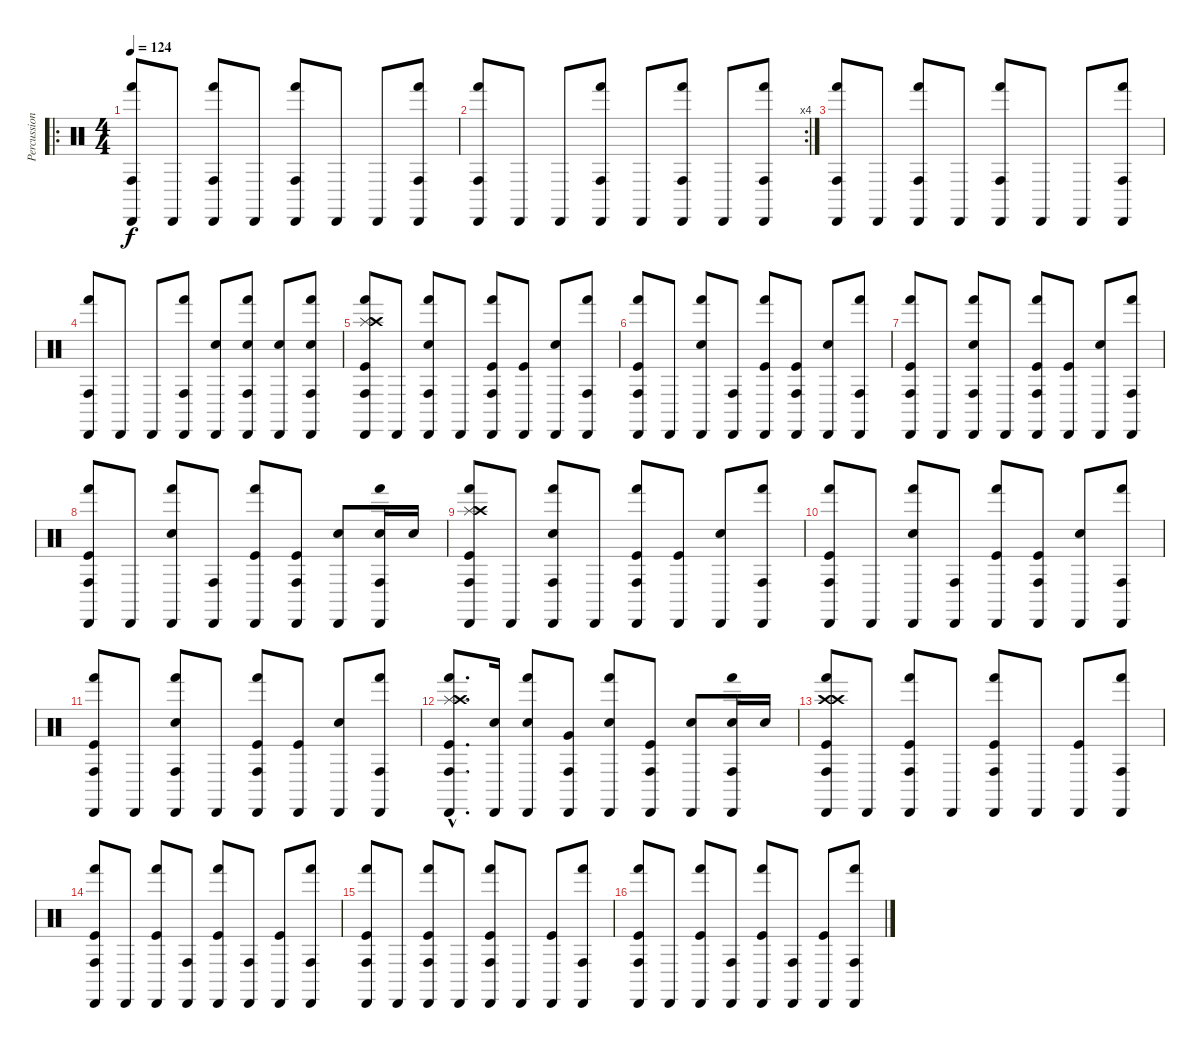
\track ("Percussion" "Percussion") {instrument percussion}
\staff {score}
\articulation defaults
\ro
\ts (4 4)
\tempo 124
\clef neutral
\ks c
("Cabasa (hit)" "Hand (hit)" "Conga high (hit)").8{dy f} "Cabasa (hit)".8 ("Cabasa (hit)" "Hand (hit)" "Conga high (hit)").8 "Cabasa (hit)".8 ("Cabasa (hit)" "Hand (hit)" "Conga high (hit)").8 "Cabasa (hit)".8 "Cabasa (hit)".8 ("Cabasa (hit)" "Hand (hit)" "Conga high (hit)").8 |
\rc 4
("Cabasa (hit)" "Hand (hit)" "Conga high (hit)").8 "Cabasa (hit)".8 "Cabasa (hit)".8 ("Cabasa (hit)" "Hand (hit)" "Conga high (hit)").8 "Cabasa (hit)".8 ("Cabasa (hit)" "Hand (hit)" "Conga high (hit)").8 "Cabasa (hit)".8 ("Cabasa (hit)" "Hand (hit)" "Conga high (hit)").8 |
("Cabasa (hit)" "Hand (hit)" "Conga high (hit)").8 "Cabasa (hit)".8 ("Cabasa (hit)" "Hand (hit)" "Conga high (hit)").8 "Cabasa (hit)".8 ("Cabasa (hit)" "Hand (hit)" "Conga high (hit)").8 "Cabasa (hit)".8 "Cabasa (hit)".8 ("Cabasa (hit)" "Hand (hit)" "Conga high (hit)").8 |
("Cabasa (hit)" "Hand (hit)" "Conga high (hit)").8 "Cabasa (hit)".8 "Cabasa (hit)".8 ("Cabasa (hit)" "Hand (hit)" "Conga high (hit)").8 ("Cabasa (hit)" "Electric Snare (hit)").8 ("Cabasa (hit)" "Electric Snare (hit)" "Hand (hit)" "Conga high (hit)").8 ("Cabasa (hit)" "Electric Snare (hit)").8 ("Cabasa (hit)" "Electric Snare (hit)" "Hand (hit)" "Conga high (hit)").8 |
("Cabasa (hit)" "Kick (hit)" "Hand (hit)" "Conga high (hit)" "Splash (hit)" "Crash high (hit)").8 "Cabasa (hit)".8 ("Cabasa (hit)" "Electric Snare (hit)" "Hand (hit)" "Conga high (hit)").8 "Cabasa (hit)".8 ("Cabasa (hit)" "Kick (hit)" "Hand (hit)" "Conga high (hit)").8 ("Cabasa (hit)" "Kick (hit)").8 ("Cabasa (hit)" "Electric Snare (hit)").8 ("Cabasa (hit)" "Hand (hit)" "Conga high (hit)").8 |
("Cabasa (hit)" "Kick (hit)" "Hand (hit)" "Conga high (hit)").8 "Cabasa (hit)".8 ("Cabasa (hit)" "Electric Snare (hit)" "Hand (hit)").8 ("Cabasa (hit)" "Conga high (hit)").8 ("Cabasa (hit)" "Kick (hit)" "Hand (hit)").8 ("Cabasa (hit)" "Kick (hit)" "Conga high (hit)").8 ("Cabasa (hit)" "Electric Snare (hit)").8 ("Cabasa (hit)" "Hand (hit)" "Conga high (hit)").8 |
("Cabasa (hit)" "Kick (hit)" "Hand (hit)" "Conga high (hit)").8 "Cabasa (hit)".8 ("Cabasa (hit)" "Electric Snare (hit)" "Hand (hit)" "Conga high (hit)").8 "Cabasa (hit)".8 ("Cabasa (hit)" "Kick (hit)" "Hand (hit)" "Conga high (hit)").8 ("Cabasa (hit)" "Kick (hit)").8 ("Cabasa (hit)" "Electric Snare (hit)").8 ("Cabasa (hit)" "Hand (hit)" "Conga high (hit)").8 |
("Cabasa (hit)" "Kick (hit)" "Hand (hit)" "Conga high (hit)").8 "Cabasa (hit)".8 ("Cabasa (hit)" "Electric Snare (hit)" "Hand (hit)").8 ("Cabasa (hit)" "Conga high (hit)").8 ("Cabasa (hit)" "Kick (hit)" "Hand (hit)").8 ("Cabasa (hit)" "Kick (hit)" "Conga high (hit)").8 ("Cabasa (hit)" "Electric Snare (hit)").8 ("Cabasa (hit)" "Snare (hit) 2" "Hand (hit)" "Conga high (hit)").16 "Snare (hit) 2".16 |
("Cabasa (hit)" "Kick (hit)" "Hand (hit)" "Conga high (hit)" "Splash (hit)" "Crash high (hit)").8 "Cabasa (hit)".8 ("Cabasa (hit)" "Electric Snare (hit)" "Hand (hit)" "Conga high (hit)").8 "Cabasa (hit)".8 ("Cabasa (hit)" "Kick (hit)" "Hand (hit)" "Conga high (hit)").8 ("Cabasa (hit)" "Kick (hit)").8 ("Cabasa (hit)" "Electric Snare (hit)").8 ("Cabasa (hit)" "Hand (hit)" "Conga high (hit)").8 |
("Cabasa (hit)" "Kick (hit)" "Hand (hit)" "Conga high (hit)").8 "Cabasa (hit)".8 ("Cabasa (hit)" "Electric Snare (hit)" "Hand (hit)").8 ("Cabasa (hit)" "Conga high (hit)").8 ("Cabasa (hit)" "Kick (hit)" "Hand (hit)").8 ("Cabasa (hit)" "Kick (hit)" "Conga high (hit)").8 ("Cabasa (hit)" "Electric Snare (hit)").8 ("Cabasa (hit)" "Hand (hit)" "Conga high (hit)").8 |
("Cabasa (hit)" "Kick (hit)" "Hand (hit)" "Conga high (hit)").8 "Cabasa (hit)".8 ("Cabasa (hit)" "Electric Snare (hit)" "Hand (hit)" "Conga high (hit)").8 "Cabasa (hit)".8 ("Cabasa (hit)" "Kick (hit)" "Hand (hit)" "Conga high (hit)").8 ("Cabasa (hit)" "Kick (hit)").8 ("Cabasa (hit)" "Electric Snare (hit)").8 ("Cabasa (hit)" "Hand (hit)" "Conga high (hit)").8 |
("Cabasa (hit)"{hac} "Kick (hit)"{hac} "Hand (hit)"{hac} "Conga high (hit)"{hac} "Splash (hit)"{hac} "Crash high (hit)"{hac}).8{d} ("Cabasa (hit)" "Snare (hit) 2").16 ("Cabasa (hit)" "Snare (hit) 2" "Hand (hit)").8 ("Cabasa (hit)" "Very Low Tom (hit)" "Conga high (hit)").8 ("Cabasa (hit)" "Snare (hit) 2" "Hand (hit)").8 ("Cabasa (hit)" "Kick (hit)" "Conga high (hit)").8 ("Cabasa (hit)" "Snare (hit) 2").8 ("Cabasa (hit)" "Snare (hit) 2" "Hand (hit)" "Conga high (hit)").16 "Snare (hit) 2".16 |
("Cabasa (hit)" "Kick (hit)" "Hand (hit)" "Conga high (hit)" "Crash high (hit)" "Crash high (hit)").8 "Cabasa (hit)".8 ("Cabasa (hit)" "Kick (hit)" "Hand (hit)" "Conga high (hit)").8 "Cabasa (hit)".8 ("Cabasa (hit)" "Kick (hit)" "Hand (hit)" "Conga high (hit)").8 "Cabasa (hit)".8 ("Cabasa (hit)" "Kick (hit)").8 ("Cabasa (hit)" "Hand (hit)" "Conga high (hit)").8 |
("Cabasa (hit)" "Kick (hit)" "Hand (hit)" "Conga high (hit)").8 "Cabasa (hit)".8 ("Cabasa (hit)" "Kick (hit)" "Hand (hit)").8 ("Cabasa (hit)" "Conga high (hit)").8 ("Cabasa (hit)" "Kick (hit)" "Hand (hit)").8 ("Cabasa (hit)" "Conga high (hit)").8 ("Cabasa (hit)" "Kick (hit)").8 ("Cabasa (hit)" "Hand (hit)" "Conga high (hit)").8 |
("Cabasa (hit)" "Kick (hit)" "Hand (hit)" "Conga high (hit)").8 "Cabasa (hit)".8 ("Cabasa (hit)" "Kick (hit)" "Hand (hit)" "Conga high (hit)").8 "Cabasa (hit)".8 ("Cabasa (hit)" "Kick (hit)" "Hand (hit)" "Conga high (hit)").8 "Cabasa (hit)".8 ("Cabasa (hit)" "Kick (hit)").8 ("Cabasa (hit)" "Hand (hit)" "Conga high (hit)").8 |
("Cabasa (hit)" "Kick (hit)" "Hand (hit)" "Conga high (hit)").8 "Cabasa (hit)".8 ("Cabasa (hit)" "Kick (hit)" "Hand (hit)").8 ("Cabasa (hit)" "Conga high (hit)").8 ("Cabasa (hit)" "Kick (hit)" "Hand (hit)").8 ("Cabasa (hit)" "Conga high (hit)").8 ("Cabasa (hit)" "Kick (hit)").8 ("Cabasa (hit)" "Hand (hit)" "Conga high (hit)").8
